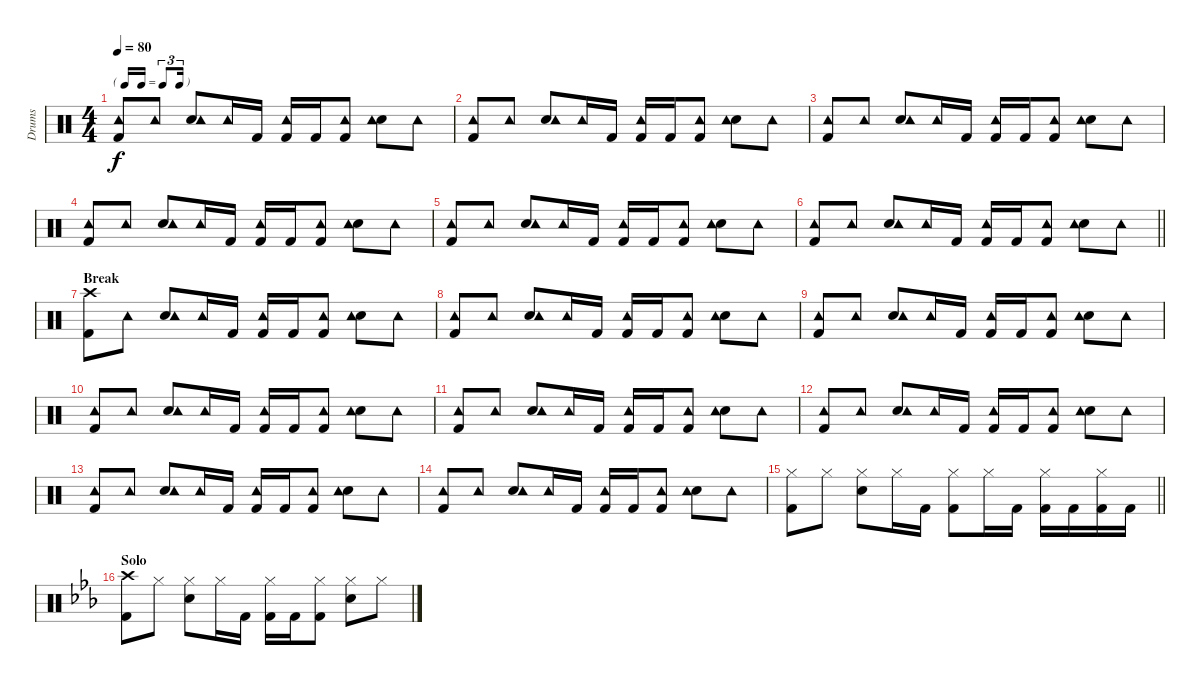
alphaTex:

\track ("Drums" "Drums") {instrument percussion}
\staff {score}
\articulation defaults
\ts (4 4)
\tf triplet16th
\tempo 80
\clef neutral
\ks c
("Tambourine (hit)" "Kick (hit) 2").8{dy f} "Tambourine (hit)".8 ("Electric Snare (hit)" "Tambourine (hit)").8 "Tambourine (hit)".16 "Kick (hit) 2".16 ("Kick (hit) 2" "Tambourine (hit)").16 "Kick (hit) 2".16 ("Kick (hit) 2" "Tambourine (hit)").8 ("Electric Snare (hit)" "Tambourine (hit)").8 "Tambourine (hit)".8 |
("Tambourine (hit)" "Kick (hit) 2").8 "Tambourine (hit)".8 ("Electric Snare (hit)" "Tambourine (hit)").8 "Tambourine (hit)".16 "Kick (hit) 2".16 ("Kick (hit) 2" "Tambourine (hit)").16 "Kick (hit) 2".16 ("Kick (hit) 2" "Tambourine (hit)").8 ("Electric Snare (hit)" "Tambourine (hit)").8 "Tambourine (hit)".8 |
("Tambourine (hit)" "Kick (hit) 2").8 "Tambourine (hit)".8 ("Electric Snare (hit)" "Tambourine (hit)").8 "Tambourine (hit)".16 "Kick (hit) 2".16 ("Kick (hit) 2" "Tambourine (hit)").16 "Kick (hit) 2".16 ("Kick (hit) 2" "Tambourine (hit)").8 ("Electric Snare (hit)" "Tambourine (hit)").8 "Tambourine (hit)".8 |
("Tambourine (hit)" "Kick (hit) 2").8 "Tambourine (hit)".8 ("Electric Snare (hit)" "Tambourine (hit)").8 "Tambourine (hit)".16 "Kick (hit) 2".16 ("Kick (hit) 2" "Tambourine (hit)").16 "Kick (hit) 2".16 ("Kick (hit) 2" "Tambourine (hit)").8 ("Electric Snare (hit)" "Tambourine (hit)").8 "Tambourine (hit)".8 |
("Tambourine (hit)" "Kick (hit) 2").8 "Tambourine (hit)".8 ("Electric Snare (hit)" "Tambourine (hit)").8 "Tambourine (hit)".16 "Kick (hit) 2".16 ("Kick (hit) 2" "Tambourine (hit)").16 "Kick (hit) 2".16 ("Kick (hit) 2" "Tambourine (hit)").8 ("Electric Snare (hit)" "Tambourine (hit)").8 "Tambourine (hit)".8 |
\barLineRight lightlight
("Tambourine (hit)" "Kick (hit) 2").8 "Tambourine (hit)".8 ("Electric Snare (hit)" "Tambourine (hit)").8 "Tambourine (hit)".16 "Kick (hit) 2".16 ("Kick (hit) 2" "Tambourine (hit)").16 "Kick (hit) 2".16 ("Kick (hit) 2" "Tambourine (hit)").8 ("Electric Snare (hit)" "Tambourine (hit)").8 "Tambourine (hit)".8 |
\section ("" "Break")
("Crash high (hit)" "Kick (hit) 2").8 "Tambourine (hit)".8 ("Electric Snare (hit)" "Tambourine (hit)").8 "Tambourine (hit)".16 "Kick (hit) 2".16 ("Kick (hit) 2" "Tambourine (hit)").16 "Kick (hit) 2".16 ("Kick (hit) 2" "Tambourine (hit)").8 ("Electric Snare (hit)" "Tambourine (hit)").8 "Tambourine (hit)".8 |
("Tambourine (hit)" "Kick (hit) 2").8 "Tambourine (hit)".8 ("Electric Snare (hit)" "Tambourine (hit)").8 "Tambourine (hit)".16 "Kick (hit) 2".16 ("Kick (hit) 2" "Tambourine (hit)").16 "Kick (hit) 2".16 ("Kick (hit) 2" "Tambourine (hit)").8 ("Electric Snare (hit)" "Tambourine (hit)").8 "Tambourine (hit)".8 |
("Tambourine (hit)" "Kick (hit) 2").8 "Tambourine (hit)".8 ("Electric Snare (hit)" "Tambourine (hit)").8 "Tambourine (hit)".16 "Kick (hit) 2".16 ("Kick (hit) 2" "Tambourine (hit)").16 "Kick (hit) 2".16 ("Kick (hit) 2" "Tambourine (hit)").8 ("Electric Snare (hit)" "Tambourine (hit)").8 "Tambourine (hit)".8 |
("Tambourine (hit)" "Kick (hit) 2").8 "Tambourine (hit)".8 ("Electric Snare (hit)" "Tambourine (hit)").8 "Tambourine (hit)".16 "Kick (hit) 2".16 ("Kick (hit) 2" "Tambourine (hit)").16 "Kick (hit) 2".16 ("Kick (hit) 2" "Tambourine (hit)").8 ("Electric Snare (hit)" "Tambourine (hit)").8 "Tambourine (hit)".8 |
("Tambourine (hit)" "Kick (hit) 2").8 "Tambourine (hit)".8 ("Electric Snare (hit)" "Tambourine (hit)").8 "Tambourine (hit)".16 "Kick (hit) 2".16 ("Kick (hit) 2" "Tambourine (hit)").16 "Kick (hit) 2".16 ("Kick (hit) 2" "Tambourine (hit)").8 ("Electric Snare (hit)" "Tambourine (hit)").8 "Tambourine (hit)".8 |
("Tambourine (hit)" "Kick (hit) 2").8 "Tambourine (hit)".8 ("Electric Snare (hit)" "Tambourine (hit)").8 "Tambourine (hit)".16 "Kick (hit) 2".16 ("Kick (hit) 2" "Tambourine (hit)").16 "Kick (hit) 2".16 ("Kick (hit) 2" "Tambourine (hit)").8 ("Electric Snare (hit)" "Tambourine (hit)").8 "Tambourine (hit)".8 |
("Tambourine (hit)" "Kick (hit) 2").8 "Tambourine (hit)".8 ("Electric Snare (hit)" "Tambourine (hit)").8 "Tambourine (hit)".16 "Kick (hit) 2".16 ("Kick (hit) 2" "Tambourine (hit)").16 "Kick (hit) 2".16 ("Kick (hit) 2" "Tambourine (hit)").8 ("Electric Snare (hit)" "Tambourine (hit)").8 "Tambourine (hit)".8 |
("Tambourine (hit)" "Kick (hit) 2").8 "Tambourine (hit)".8 ("Electric Snare (hit)" "Tambourine (hit)").8 "Tambourine (hit)".16 "Kick (hit) 2".16 ("Kick (hit) 2" "Tambourine (hit)").16 "Kick (hit) 2".16 ("Kick (hit) 2" "Tambourine (hit)").8 ("Electric Snare (hit)" "Tambourine (hit)").8 "Tambourine (hit)".8 |
\barLineRight lightlight
("Hi-Hat (closed)" "Kick (hit) 2").8 "Hi-Hat (closed)".8 ("Hi-Hat (closed)" "Electric Snare (hit)").8 "Hi-Hat (closed)".16 "Kick (hit) 2".16 ("Kick (hit) 2" "Hi-Hat (closed)").8 "Hi-Hat (closed)".16 "Kick (hit) 2".16 ("Kick (hit) 2" "Hi-Hat (closed)").16 "Kick (hit) 2".16 ("Kick (hit) 2" "Hi-Hat (closed)").16 "Kick (hit) 2".16 |
\section ("" "Solo")
\ks cminor
("Crash high (hit)" "Kick (hit) 2").8 "Hi-Hat (closed)".8 ("Electric Snare (hit)" "Hi-Hat (closed)").8 "Hi-Hat (closed)".16 "Kick (hit) 2".16 ("Kick (hit) 2" "Hi-Hat (closed)").16 "Kick (hit) 2".16 ("Kick (hit) 2" "Hi-Hat (closed)").8 ("Electric Snare (hit)" "Hi-Hat (closed)").8 "Hi-Hat (closed)".8
